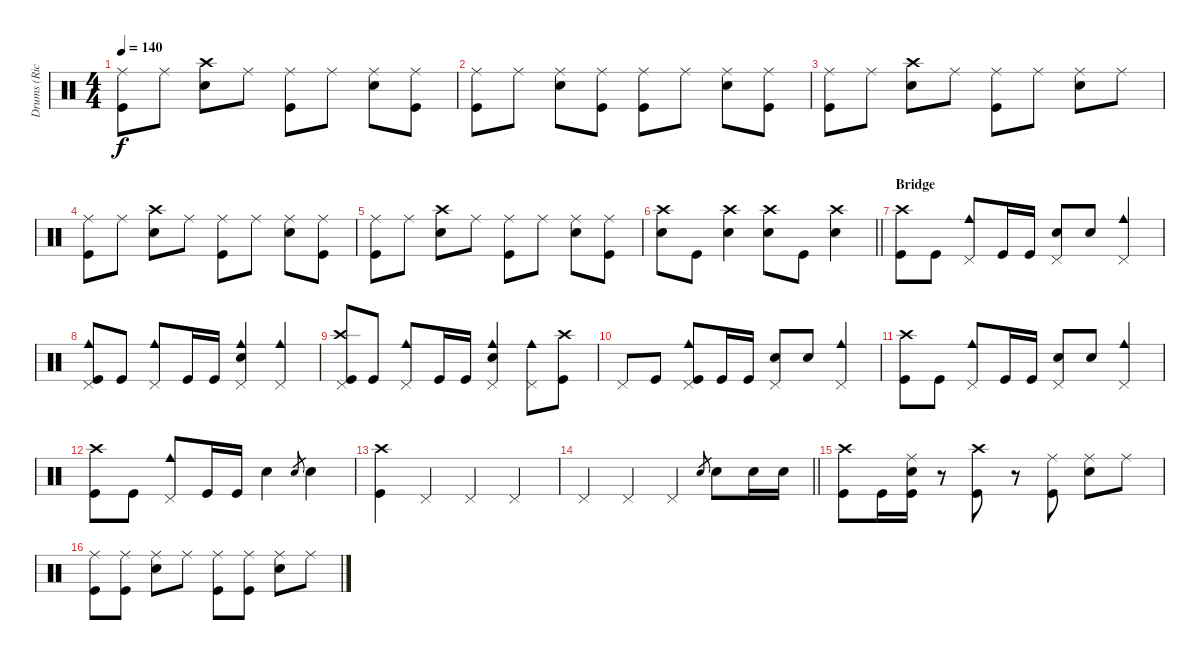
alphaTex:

\track ("Drums (Rick)" "Drums (Ric") {instrument percussion}
\staff {score}
\articulation defaults
\ts (4 4)
\tempo 140
\clef neutral
\ks aminor
("Ride (middle)" "Kick (hit)").8{dy f} "Ride (middle)".8 ("Crash high (hit)" "Snare (hit) 2").8 "Ride (middle)".8 ("Ride (middle)" "Kick (hit)").8 "Ride (middle)".8 ("Ride (middle)" "Snare (hit) 2").8 ("Ride (middle)" "Kick (hit)").8 |
("Ride (middle)" "Kick (hit)").8 "Ride (middle)".8 ("Ride (middle)" "Snare (hit) 2").8 ("Ride (middle)" "Kick (hit)").8 ("Ride (middle)" "Kick (hit)").8 "Ride (middle)".8 ("Ride (middle)" "Snare (hit) 2").8 ("Ride (middle)" "Kick (hit)").8 |
("Ride (middle)" "Kick (hit)").8 "Ride (middle)".8 ("Crash high (hit)" "Snare (hit) 2").8 "Ride (middle)".8 ("Ride (middle)" "Kick (hit)").8 "Ride (middle)".8 ("Ride (middle)" "Snare (hit) 2").8 "Ride (middle)".8 |
("Ride (middle)" "Kick (hit)").8 "Ride (middle)".8 ("Crash high (hit)" "Snare (hit) 2").8 "Ride (middle)".8 ("Ride (middle)" "Kick (hit)").8 "Ride (middle)".8 ("Ride (middle)" "Snare (hit) 2").8 ("Ride (middle)" "Kick (hit)").8 |
("Ride (middle)" "Kick (hit)").8 "Ride (middle)".8 ("Crash high (hit)" "Snare (hit) 2").8 "Ride (middle)".8 ("Ride (middle)" "Kick (hit)").8 "Ride (middle)".8 ("Ride (middle)" "Snare (hit) 2").8 ("Ride (middle)" "Kick (hit)").8 |
\barLineRight lightlight
("Crash high (hit)" "Snare (hit) 2").8 "Kick (hit)".8 ("Crash high (hit)" "Snare (hit) 2").4 ("Crash high (hit)" "Snare (hit) 2").8 "Kick (hit)".8 ("Crash high (hit)" "Snare (hit) 2").4 |
\section ("" "Bridge")
("Crash high (hit)" "Kick (hit)").8 "Kick (hit)".8 ("Cowbell medium (hit)" "Pedal Hi-Hat (hit)").8 "Kick (hit)".16 "Kick (hit)".16 ("Snare (hit) 2" "Pedal Hi-Hat (hit)").8 "Snare (hit) 2".8 ("Cowbell medium (hit)" "Pedal Hi-Hat (hit)").4 |
("Cowbell medium (hit)" "Pedal Hi-Hat (hit)" "Kick (hit)").8 "Kick (hit)".8 ("Cowbell medium (hit)" "Pedal Hi-Hat (hit)").8 "Kick (hit)".16 "Kick (hit)".16 ("Cowbell medium (hit)" "Snare (hit) 2" "Pedal Hi-Hat (hit)").4 ("Cowbell medium (hit)" "Pedal Hi-Hat (hit)").4 |
("Crash high (hit)" "Pedal Hi-Hat (hit)" "Kick (hit)").8 "Kick (hit)".8 ("Cowbell medium (hit)" "Pedal Hi-Hat (hit)").8 "Kick (hit)".16 "Kick (hit)".16 ("Cowbell medium (hit)" "Snare (hit) 2" "Pedal Hi-Hat (hit)").4 ("Cowbell medium (hit)" "Pedal Hi-Hat (hit)").8 ("Crash high (hit)" "Kick (hit)").8 |
"Pedal Hi-Hat (hit)".8 "Kick (hit)".8 ("Cowbell medium (hit)" "Pedal Hi-Hat (hit)" "Kick (hit)").8 "Kick (hit)".16 "Kick (hit)".16 ("Snare (hit) 2" "Pedal Hi-Hat (hit)").8 "Snare (hit) 2".8 ("Cowbell medium (hit)" "Pedal Hi-Hat (hit)").4 |
("Crash high (hit)" "Kick (hit)").8 "Kick (hit)".8 ("Cowbell medium (hit)" "Pedal Hi-Hat (hit)").8 "Kick (hit)".16 "Kick (hit)".16 ("Snare (hit) 2" "Pedal Hi-Hat (hit)").8 "Snare (hit) 2".8 ("Cowbell medium (hit)" "Pedal Hi-Hat (hit)").4 |
("Crash high (hit)" "Kick (hit)").8 "Kick (hit)".8 ("Cowbell medium (hit)" "Pedal Hi-Hat (hit)").8 "Kick (hit)".16 "Kick (hit)".16 "Snare (hit) 2".4 "Snare (hit) 2".8{gr} "Snare (hit) 2".4 |
("Crash high (hit)" "Kick (hit)").4 "Pedal Hi-Hat (hit)".4 "Pedal Hi-Hat (hit)".4 "Pedal Hi-Hat (hit)".4 |
\barLineRight lightlight "Pedal Hi-Hat (hit)".4 "Pedal Hi-Hat (hit)".4 "Pedal Hi-Hat (hit)".4 "Snare (hit) 2".8{gr} "Snare (hit) 2".8 "Snare (hit) 2".16 "Snare (hit) 2".16
|
("Crash high (hit)" "Kick (hit)").8 "Kick (hit)".16 ("Ride (middle)" "Snare (hit) 2" "Kick (hit)").16 r.8 ("Crash high (hit)" "Kick (hit)").8 r.8 ("Ride (middle)" "Kick (hit)").8 ("Ride (middle)" "Snare (hit) 2").8 "Ride (middle)".8 |
("Ride (middle)" "Kick (hit)").8 ("Ride (middle)" "Kick (hit)").8 ("Ride (middle)" "Snare (hit) 2").8 "Ride (middle)".8 ("Ride (middle)" "Kick (hit)").8 ("Ride (middle)" "Kick (hit)").8 ("Ride (middle)" "Snare (hit) 2").8 "Ride (middle)".8
